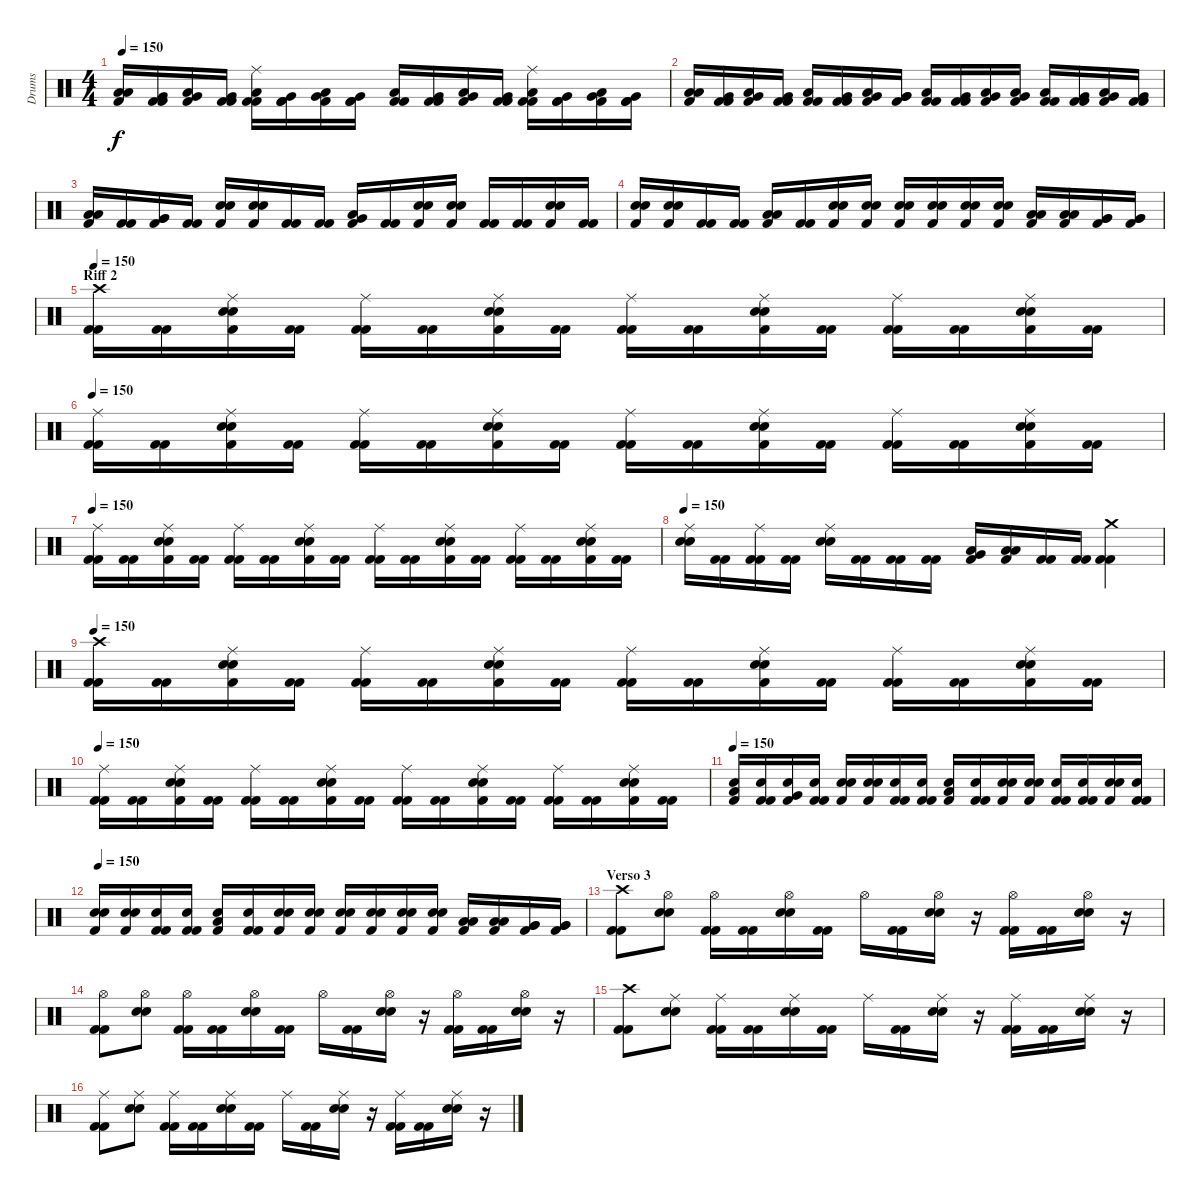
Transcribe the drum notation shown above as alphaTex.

\track ("Drums" "Drums") {instrument percussion}
\staff {score}
\articulation defaults
\ts (4 4)
\tempo 150
\clef neutral
\ks c
("Low Tom (hit)" "Low Tom (hit)" "Kick (hit) 2").16{dy f} ("Very Low Tom (hit)" "Kick (hit) 2" "Kick (hit) 2").16 ("Low Tom (hit)" "Very Low Tom (hit)" "Kick (hit) 2").16 ("Very Low Tom (hit)" "Kick (hit) 2" "Kick (hit) 2").16 ("Ride (middle)" "Low Tom (hit)" "Kick (hit) 2" "Kick (hit) 2").16 ("Very Low Tom (hit)" "Kick (hit) 2" "Kick (hit) 2").16 ("Low Tom (hit)" "Very Low Tom (hit)" "Kick (hit) 2").16 ("Very Low Tom (hit)" "Kick (hit) 2" "Kick (hit) 2").16 ("Low Tom (hit)" "Kick (hit) 2" "Kick (hit) 2").16 ("Very Low Tom (hit)" "Kick (hit) 2" "Kick (hit) 2").16 ("Low Tom (hit)" "Very Low Tom (hit)" "Kick (hit) 2").16 ("Very Low Tom (hit)" "Kick (hit) 2" "Kick (hit) 2").16 ("Ride (middle)" "Low Tom (hit)" "Kick (hit) 2" "Kick (hit) 2").16 ("Very Low Tom (hit)" "Kick (hit) 2" "Kick (hit) 2").16 ("Low Tom (hit)" "Very Low Tom (hit)" "Kick (hit) 2").16 ("Very Low Tom (hit)" "Kick (hit) 2" "Kick (hit) 2").16 |
("Low Tom (hit)" "Low Tom (hit)" "Kick (hit) 2").16 ("Very Low Tom (hit)" "Kick (hit) 2" "Kick (hit) 2").16 ("Low Tom (hit)" "Very Low Tom (hit)" "Kick (hit) 2").16 ("Very Low Tom (hit)" "Kick (hit) 2" "Kick (hit) 2").16 ("Low Tom (hit)" "Kick (hit) 2" "Kick (hit) 2").16 ("Very Low Tom (hit)" "Kick (hit) 2" "Kick (hit) 2").16 ("Low Tom (hit)" "Very Low Tom (hit)" "Kick (hit) 2").16 ("Very Low Tom (hit)" "Very Low Tom (hit)" "Kick (hit) 2").16 ("Low Tom (hit)" "Kick (hit) 2" "Kick (hit) 2").16 ("Very Low Tom (hit)" "Kick (hit) 2" "Kick (hit) 2").16 ("Low Tom (hit)" "Very Low Tom (hit)" "Kick (hit) 2").16 ("Very Low Tom (hit)" "Low Tom (hit)" "Kick (hit) 2").16 ("Low Tom (hit)" "Kick (hit) 2" "Kick (hit) 2").16 ("Very Low Tom (hit)" "Kick (hit) 2" "Kick (hit) 2").16 ("Low Tom (hit)" "Very Low Tom (hit)" "Kick (hit) 2").16 ("Very Low Tom (hit)" "Kick (hit) 2" "Kick (hit) 2").16 |
("Low Tom (hit)" "Low Tom (hit)" "Kick (hit) 2").16 ("Kick (hit) 2" "Kick (hit) 2").16 ("Very Low Tom (hit)" "Very Low Tom (hit)" "Kick (hit) 2").16 ("Kick (hit) 2" "Kick (hit) 2").16 ("Snare (hit) 2" "Snare (hit) 2" "Kick (hit) 2").16 ("Snare (hit) 2" "Snare (hit) 2" "Kick (hit) 2").16 ("Kick (hit) 2" "Kick (hit) 2").16 ("Kick (hit) 2" "Kick (hit) 2").16 ("Very Low Tom (hit)" "Low Tom (hit)" "Kick (hit) 2").16 ("Kick (hit) 2" "Kick (hit) 2").16 ("Snare (hit) 2" "Snare (hit) 2" "Kick (hit) 2").16 ("Snare (hit) 2" "Snare (hit) 2" "Kick (hit) 2").16 ("Kick (hit) 2" "Kick (hit) 2").16 ("Kick (hit) 2" "Kick (hit) 2").16 ("Snare (hit) 2" "Snare (hit) 2" "Kick (hit) 2").16 ("Kick (hit) 2" "Kick (hit) 2").16 |
("Snare (hit) 2" "Snare (hit) 2" "Kick (hit) 2").16 ("Snare (hit) 2" "Snare (hit) 2" "Kick (hit) 2").16 ("Kick (hit) 2" "Kick (hit) 2").16 ("Kick (hit) 2" "Kick (hit) 2").16 ("Low Tom (hit)" "Low Tom (hit)" "Kick (hit) 2").16 ("Kick (hit) 2" "Kick (hit) 2").16 ("Snare (hit) 2" "Snare (hit) 2" "Kick (hit) 2").16 ("Snare (hit) 2" "Snare (hit) 2" "Kick (hit) 2").16 ("Snare (hit) 2" "Snare (hit) 2" "Kick (hit) 2").16 ("Snare (hit) 2" "Snare (hit) 2" "Kick (hit) 2").16 ("Snare (hit) 2" "Snare (hit) 2" "Kick (hit) 2").16 ("Snare (hit) 2" "Snare (hit) 2" "Kick (hit) 2").16 ("Low Tom (hit)" "Low Tom (hit)" "Kick (hit) 2").16 ("Low Tom (hit)" "Low Tom (hit)" "Kick (hit) 2").16 ("Very Low Tom (hit)" "Very Low Tom (hit)" "Kick (hit) 2").16 ("Very Low Tom (hit)" "Very Low Tom (hit)" "Kick (hit) 2").16 |
\section ("" "Riff 2")
\tempo 150
("Crash high (hit)" "Kick (hit) 2" "Kick (hit) 2").16 ("Kick (hit) 2" "Kick (hit) 2").16 ("Ride (middle)" "Snare (hit) 2" "Snare (hit) 2" "Kick (hit) 2").16 ("Kick (hit) 2" "Kick (hit) 2").16 ("Ride (middle)" "Kick (hit) 2" "Kick (hit) 2").16 ("Kick (hit) 2" "Kick (hit) 2").16 ("Ride (middle)" "Snare (hit) 2" "Snare (hit) 2" "Kick (hit) 2").16 ("Kick (hit) 2" "Kick (hit) 2").16 ("Ride (middle)" "Kick (hit) 2" "Kick (hit) 2").16 ("Kick (hit) 2" "Kick (hit) 2").16 ("Ride (middle)" "Snare (hit) 2" "Snare (hit) 2" "Kick (hit) 2").16 ("Kick (hit) 2" "Kick (hit) 2").16 ("Ride (middle)" "Kick (hit) 2" "Kick (hit) 2").16 ("Kick (hit) 2" "Kick (hit) 2").16 ("Ride (middle)" "Snare (hit) 2" "Snare (hit) 2" "Kick (hit) 2").16 ("Kick (hit) 2" "Kick (hit) 2").16 |
\tempo 150
("Ride (middle)" "Kick (hit) 2" "Kick (hit) 2").16 ("Kick (hit) 2" "Kick (hit) 2").16 ("Ride (middle)" "Snare (hit) 2" "Snare (hit) 2" "Kick (hit) 2").16 ("Kick (hit) 2" "Kick (hit) 2").16 ("Ride (middle)" "Kick (hit) 2" "Kick (hit) 2").16 ("Kick (hit) 2" "Kick (hit) 2").16 ("Ride (middle)" "Snare (hit) 2" "Snare (hit) 2" "Kick (hit) 2").16 ("Kick (hit) 2" "Kick (hit) 2").16 ("Ride (middle)" "Kick (hit) 2" "Kick (hit) 2").16 ("Kick (hit) 2" "Kick (hit) 2").16 ("Ride (middle)" "Snare (hit) 2" "Snare (hit) 2" "Kick (hit) 2").16 ("Kick (hit) 2" "Kick (hit) 2").16 ("Ride (middle)" "Kick (hit) 2" "Kick (hit) 2").16 ("Kick (hit) 2" "Kick (hit) 2").16 ("Ride (middle)" "Snare (hit) 2" "Snare (hit) 2" "Kick (hit) 2").16 ("Kick (hit) 2" "Kick (hit) 2").16 |
\tempo 150
("Ride (middle)" "Kick (hit) 2" "Kick (hit) 2").16 ("Kick (hit) 2" "Kick (hit) 2").16 ("Ride (middle)" "Snare (hit) 2" "Snare (hit) 2" "Kick (hit) 2").16 ("Kick (hit) 2" "Kick (hit) 2").16 ("Ride (middle)" "Kick (hit) 2" "Kick (hit) 2").16 ("Kick (hit) 2" "Kick (hit) 2").16 ("Ride (middle)" "Snare (hit) 2" "Snare (hit) 2" "Kick (hit) 2").16 ("Kick (hit) 2" "Kick (hit) 2").16 ("Ride (middle)" "Kick (hit) 2" "Kick (hit) 2").16 ("Kick (hit) 2" "Kick (hit) 2").16 ("Ride (middle)" "Snare (hit) 2" "Snare (hit) 2" "Kick (hit) 2").16 ("Kick (hit) 2" "Kick (hit) 2").16 ("Ride (middle)" "Kick (hit) 2" "Kick (hit) 2").16 ("Kick (hit) 2" "Kick (hit) 2").16 ("Ride (middle)" "Snare (hit) 2" "Snare (hit) 2" "Kick (hit) 2").16 ("Kick (hit) 2" "Kick (hit) 2").16 |
\tempo 150
("Ride (middle)" "Snare (hit) 2" "Snare (hit) 2").16 ("Kick (hit) 2" "Kick (hit) 2").16 ("Ride (middle)" "Kick (hit) 2" "Kick (hit) 2").16 ("Kick (hit) 2" "Kick (hit) 2").16 ("Ride (middle)" "Snare (hit) 2" "Snare (hit) 2").16 ("Kick (hit) 2" "Kick (hit) 2").16 ("Kick (hit) 2" "Kick (hit) 2").16 ("Kick (hit) 2" "Kick (hit) 2").16 ("Very Low Tom (hit)" "Low Tom (hit)" "Kick (hit) 2").16 ("Low Tom (hit)" "Low Tom (hit)" "Kick (hit) 2").16 ("Kick (hit) 2" "Kick (hit) 2").16 ("Kick (hit) 2" "Kick (hit) 2").16 ("Crash medium (hit)" "Kick (hit) 2" "Kick (hit) 2").4 |
\tempo 150
("Crash high (hit)" "Kick (hit) 2" "Kick (hit) 2").16 ("Kick (hit) 2" "Kick (hit) 2").16 ("Ride (middle)" "Snare (hit) 2" "Snare (hit) 2" "Kick (hit) 2").16 ("Kick (hit) 2" "Kick (hit) 2").16 ("Ride (middle)" "Kick (hit) 2" "Kick (hit) 2").16 ("Kick (hit) 2" "Kick (hit) 2").16 ("Ride (middle)" "Snare (hit) 2" "Snare (hit) 2" "Kick (hit) 2").16 ("Kick (hit) 2" "Kick (hit) 2").16 ("Ride (middle)" "Kick (hit) 2" "Kick (hit) 2").16 ("Kick (hit) 2" "Kick (hit) 2").16 ("Ride (middle)" "Snare (hit) 2" "Snare (hit) 2" "Kick (hit) 2").16 ("Kick (hit) 2" "Kick (hit) 2").16 ("Ride (middle)" "Kick (hit) 2" "Kick (hit) 2").16 ("Kick (hit) 2" "Kick (hit) 2").16 ("Ride (middle)" "Snare (hit) 2" "Snare (hit) 2" "Kick (hit) 2").16 ("Kick (hit) 2" "Kick (hit) 2").16 |
\tempo 150
("Ride (middle)" "Kick (hit) 2" "Kick (hit) 2").16 ("Kick (hit) 2" "Kick (hit) 2").16 ("Ride (middle)" "Snare (hit) 2" "Snare (hit) 2" "Kick (hit) 2").16 ("Kick (hit) 2" "Kick (hit) 2").16 ("Ride (middle)" "Kick (hit) 2" "Kick (hit) 2").16 ("Kick (hit) 2" "Kick (hit) 2").16 ("Ride (middle)" "Snare (hit) 2" "Snare (hit) 2" "Kick (hit) 2").16 ("Kick (hit) 2" "Kick (hit) 2").16 ("Ride (middle)" "Kick (hit) 2" "Kick (hit) 2").16 ("Kick (hit) 2" "Kick (hit) 2").16 ("Ride (middle)" "Snare (hit) 2" "Snare (hit) 2" "Kick (hit) 2").16 ("Kick (hit) 2" "Kick (hit) 2").16 ("Ride (middle)" "Kick (hit) 2" "Kick (hit) 2").16 ("Kick (hit) 2" "Kick (hit) 2").16 ("Ride (middle)" "Snare (hit) 2" "Snare (hit) 2" "Kick (hit) 2").16 ("Kick (hit) 2" "Kick (hit) 2").16 |
\tempo 150
("Snare (hit) 2" "Low Tom (hit)" "Kick (hit) 2").16 ("Snare (hit) 2" "Kick (hit) 2" "Kick (hit) 2").16 ("Snare (hit) 2" "Very Low Tom (hit)" "Kick (hit) 2").16 ("Snare (hit) 2" "Kick (hit) 2" "Kick (hit) 2").16 ("Snare (hit) 2" "Snare (hit) 2" "Kick (hit) 2").16 ("Snare (hit) 2" "Snare (hit) 2" "Kick (hit) 2").16 ("Snare (hit) 2" "Kick (hit) 2" "Kick (hit) 2").16 ("Snare (hit) 2" "Kick (hit) 2" "Kick (hit) 2").16 ("Snare (hit) 2" "Low Tom (hit)" "Kick (hit) 2").16 ("Snare (hit) 2" "Kick (hit) 2" "Kick (hit) 2").16 ("Snare (hit) 2" "Snare (hit) 2" "Kick (hit) 2").16 ("Snare (hit) 2" "Snare (hit) 2" "Kick (hit) 2").16 ("Snare (hit) 2" "Kick (hit) 2" "Kick (hit) 2").16 ("Snare (hit) 2" "Kick (hit) 2" "Kick (hit) 2").16 ("Snare (hit) 2" "Snare (hit) 2" "Kick (hit) 2").16 ("Snare (hit) 2" "Kick (hit) 2" "Kick (hit) 2").16 |
\tempo 150
("Snare (hit) 2" "Snare (hit) 2" "Kick (hit) 2").16 ("Snare (hit) 2" "Snare (hit) 2" "Kick (hit) 2").16 ("Snare (hit) 2" "Kick (hit) 2" "Kick (hit) 2").16 ("Snare (hit) 2" "Kick (hit) 2" "Kick (hit) 2").16 ("Snare (hit) 2" "Low Tom (hit)" "Kick (hit) 2").16 ("Snare (hit) 2" "Kick (hit) 2" "Kick (hit) 2").16 ("Snare (hit) 2" "Snare (hit) 2" "Kick (hit) 2").16 ("Snare (hit) 2" "Snare (hit) 2" "Kick (hit) 2").16 ("Snare (hit) 2" "Snare (hit) 2" "Kick (hit) 2").16 ("Snare (hit) 2" "Snare (hit) 2" "Kick (hit) 2").16 ("Snare (hit) 2" "Snare (hit) 2" "Kick (hit) 2").16 ("Snare (hit) 2" "Snare (hit) 2" "Kick (hit) 2").16 ("Low Tom (hit)" "Low Tom (hit)" "Kick (hit) 2").16 ("Low Tom (hit)" "Low Tom (hit)" "Kick (hit) 2").16 ("Very Low Tom (hit)" "Very Low Tom (hit)" "Kick (hit) 2").16 ("Very Low Tom (hit)" "Very Low Tom (hit)" "Kick (hit) 2").16 |
\section ("" "Verso 3")
("Crash high (hit)" "Kick (hit) 2" "Kick (hit) 2").8 ("Hi-Hat (open)" "Snare (hit) 2" "Snare (hit) 2").8 ("Hi-Hat (open)" "Kick (hit) 2" "Kick (hit) 2").16 ("Kick (hit) 2" "Kick (hit) 2").16 ("Hi-Hat (open)" "Snare (hit) 2" "Snare (hit) 2").16 ("Kick (hit) 2" "Kick (hit) 2").16 "Hi-Hat (open)".16 ("Kick (hit) 2" "Kick (hit) 2").16 ("Hi-Hat (open)" "Snare (hit) 2" "Snare (hit) 2").16 r.16 ("Hi-Hat (open)" "Kick (hit) 2" "Kick (hit) 2").16 ("Kick (hit) 2" "Kick (hit) 2").16 ("Hi-Hat (open)" "Snare (hit) 2" "Snare (hit) 2").16 r.16 |
("Hi-Hat (open)" "Kick (hit) 2" "Kick (hit) 2").8 ("Hi-Hat (open)" "Snare (hit) 2" "Snare (hit) 2").8 ("Hi-Hat (open)" "Kick (hit) 2" "Kick (hit) 2").16 ("Kick (hit) 2" "Kick (hit) 2").16 ("Hi-Hat (open)" "Snare (hit) 2" "Snare (hit) 2").16 ("Kick (hit) 2" "Kick (hit) 2").16 "Hi-Hat (open)".16 ("Kick (hit) 2" "Kick (hit) 2").16 ("Hi-Hat (open)" "Snare (hit) 2" "Snare (hit) 2").16 r.16 ("Hi-Hat (open)" "Kick (hit) 2" "Kick (hit) 2").16 ("Kick (hit) 2" "Kick (hit) 2").16 ("Hi-Hat (open)" "Snare (hit) 2" "Snare (hit) 2").16 r.16 |
("Crash high (hit)" "Kick (hit) 2" "Kick (hit) 2").8 ("Ride (middle)" "Snare (hit) 2" "Snare (hit) 2").8 ("Ride (middle)" "Kick (hit) 2" "Kick (hit) 2").16 ("Kick (hit) 2" "Kick (hit) 2").16 ("Ride (middle)" "Snare (hit) 2" "Snare (hit) 2").16 ("Kick (hit) 2" "Kick (hit) 2").16 "Ride (middle)".16 ("Kick (hit) 2" "Kick (hit) 2").16 ("Ride (middle)" "Snare (hit) 2" "Snare (hit) 2").16 r.16 ("Ride (middle)" "Kick (hit) 2" "Kick (hit) 2").16 ("Kick (hit) 2" "Kick (hit) 2").16 ("Ride (middle)" "Snare (hit) 2" "Snare (hit) 2").16 r.16 |
("Ride (middle)" "Kick (hit) 2" "Kick (hit) 2").8 ("Ride (middle)" "Snare (hit) 2" "Snare (hit) 2").8 ("Ride (middle)" "Kick (hit) 2" "Kick (hit) 2").16 ("Kick (hit) 2" "Kick (hit) 2").16 ("Ride (middle)" "Snare (hit) 2" "Snare (hit) 2").16 ("Kick (hit) 2" "Kick (hit) 2").16 "Ride (middle)".16 ("Kick (hit) 2" "Kick (hit) 2").16 ("Ride (middle)" "Snare (hit) 2" "Snare (hit) 2").16 r.16 ("Ride (middle)" "Kick (hit) 2" "Kick (hit) 2").16 ("Kick (hit) 2" "Kick (hit) 2").16 ("Ride (middle)" "Snare (hit) 2" "Snare (hit) 2").16 r.16
